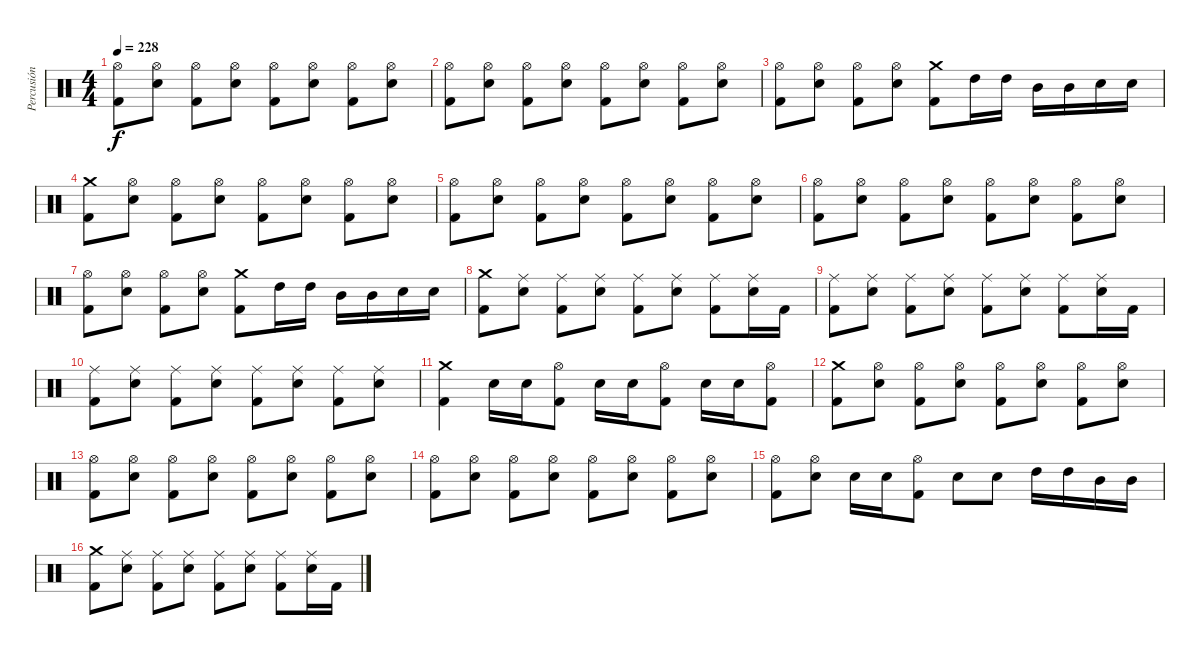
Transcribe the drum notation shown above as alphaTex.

\track ("Percusión" "Percusión") {instrument percussion}
\staff {score}
\articulation defaults
\ts (4 4)
\tempo 228
\clef neutral
\ks c
("Hi-Hat (open)" "Kick (hit) 2").8{dy f} ("Hi-Hat (open)" "Electric Snare (hit)").8 ("Hi-Hat (open)" "Kick (hit) 2").8 ("Hi-Hat (open)" "Electric Snare (hit)").8 ("Hi-Hat (open)" "Kick (hit) 2").8 ("Hi-Hat (open)" "Electric Snare (hit)").8 ("Hi-Hat (open)" "Kick (hit) 2").8 ("Hi-Hat (open)" "Electric Snare (hit)").8 |
("Hi-Hat (open)" "Kick (hit) 2").8 ("Hi-Hat (open)" "Electric Snare (hit)").8 ("Hi-Hat (open)" "Kick (hit) 2").8 ("Hi-Hat (open)" "Electric Snare (hit)").8 ("Hi-Hat (open)" "Kick (hit) 2").8 ("Hi-Hat (open)" "Electric Snare (hit)").8 ("Hi-Hat (open)" "Kick (hit) 2").8 ("Hi-Hat (open)" "Electric Snare (hit)").8 |
("Hi-Hat (open)" "Kick (hit) 2").8 ("Hi-Hat (open)" "Electric Snare (hit)").8 ("Hi-Hat (open)" "Kick (hit) 2").8 ("Hi-Hat (open)" "Electric Snare (hit)").8 ("Crash medium (hit)" "Kick (hit) 2").8 "High Tom (hit)".16 "High Tom (hit)".16 "Mid Tom (hit)".16 "Mid Tom (hit)".16 "Electric Snare (hit)".16 "Electric Snare (hit)".16 |
("Kick (hit) 2" "Crash medium (hit)").8 ("Hi-Hat (open)" "Electric Snare (hit)").8 ("Hi-Hat (open)" "Kick (hit) 2").8 ("Hi-Hat (open)" "Electric Snare (hit)").8 ("Hi-Hat (open)" "Kick (hit) 2").8 ("Hi-Hat (open)" "Electric Snare (hit)").8 ("Hi-Hat (open)" "Kick (hit) 2").8 ("Hi-Hat (open)" "Electric Snare (hit)").8 |
("Hi-Hat (open)" "Kick (hit) 2").8 ("Hi-Hat (open)" "Electric Snare (hit)").8 ("Hi-Hat (open)" "Kick (hit) 2").8 ("Hi-Hat (open)" "Electric Snare (hit)").8 ("Hi-Hat (open)" "Kick (hit) 2").8 ("Hi-Hat (open)" "Electric Snare (hit)").8 ("Hi-Hat (open)" "Kick (hit) 2").8 ("Hi-Hat (open)" "Electric Snare (hit)").8 |
("Hi-Hat (open)" "Kick (hit) 2").8 ("Hi-Hat (open)" "Electric Snare (hit)").8 ("Hi-Hat (open)" "Kick (hit) 2").8 ("Hi-Hat (open)" "Electric Snare (hit)").8 ("Hi-Hat (open)" "Kick (hit) 2").8 ("Hi-Hat (open)" "Electric Snare (hit)").8 ("Hi-Hat (open)" "Kick (hit) 2").8 ("Hi-Hat (open)" "Electric Snare (hit)").8 |
("Hi-Hat (open)" "Kick (hit) 2").8 ("Hi-Hat (open)" "Electric Snare (hit)").8 ("Hi-Hat (open)" "Kick (hit) 2").8 ("Hi-Hat (open)" "Electric Snare (hit)").8 ("Crash medium (hit)" "Kick (hit) 2").8 "High Tom (hit)".16 "High Tom (hit)".16 "Mid Tom (hit)".16 "Mid Tom (hit)".16 "Electric Snare (hit)".16 "Electric Snare (hit)".16 |
("Kick (hit) 2" "Crash medium (hit)").8 ("Ride (middle)" "Electric Snare (hit)").8 ("Ride (middle)" "Kick (hit) 2").8 ("Ride (middle)" "Electric Snare (hit)").8 ("Ride (middle)" "Kick (hit) 2").8 ("Ride (middle)" "Electric Snare (hit)").8 ("Ride (middle)" "Kick (hit) 2").8 ("Ride (middle)" "Electric Snare (hit)").16 "Kick (hit) 2".16 |
("Ride (middle)" "Kick (hit) 2").8 ("Ride (middle)" "Electric Snare (hit)").8 ("Ride (middle)" "Kick (hit) 2").8 ("Ride (middle)" "Electric Snare (hit)").8 ("Ride (middle)" "Kick (hit) 2").8 ("Ride (middle)" "Electric Snare (hit)").8 ("Ride (middle)" "Kick (hit) 2").8 ("Ride (middle)" "Electric Snare (hit)").16 "Kick (hit) 2".16 |
("Ride (middle)" "Kick (hit) 2").8 ("Ride (middle)" "Electric Snare (hit)").8 ("Ride (middle)" "Kick (hit) 2").8 ("Ride (middle)" "Electric Snare (hit)").8 ("Ride (middle)" "Kick (hit) 2").8 ("Ride (middle)" "Electric Snare (hit)").8 ("Ride (middle)" "Kick (hit) 2").8 ("Ride (middle)" "Electric Snare (hit)").8 |
("Crash medium (hit)" "Kick (hit) 2").4 "Electric Snare (hit)".16 "Electric Snare (hit)".16 ("Hi-Hat (open)" "Kick (hit) 2").8 "Electric Snare (hit)".16 "Electric Snare (hit)".16 ("Kick (hit) 2" "Hi-Hat (open)").8 "Electric Snare (hit)".16 "Electric Snare (hit)".16 ("Hi-Hat (open)" "Kick (hit) 2").8 |
("Kick (hit) 2" "Crash medium (hit)").8 ("Hi-Hat (open)" "Electric Snare (hit)").8 ("Hi-Hat (open)" "Kick (hit) 2").8 ("Hi-Hat (open)" "Electric Snare (hit)").8 ("Hi-Hat (open)" "Kick (hit) 2").8 ("Hi-Hat (open)" "Electric Snare (hit)").8 ("Hi-Hat (open)" "Kick (hit) 2").8 ("Hi-Hat (open)" "Electric Snare (hit)").8 |
("Hi-Hat (open)" "Kick (hit) 2").8 ("Hi-Hat (open)" "Electric Snare (hit)").8 ("Hi-Hat (open)" "Kick (hit) 2").8 ("Hi-Hat (open)" "Electric Snare (hit)").8 ("Hi-Hat (open)" "Kick (hit) 2").8 ("Hi-Hat (open)" "Electric Snare (hit)").8 ("Hi-Hat (open)" "Kick (hit) 2").8 ("Hi-Hat (open)" "Electric Snare (hit)").8 |
("Hi-Hat (open)" "Kick (hit) 2").8 ("Hi-Hat (open)" "Electric Snare (hit)").8 ("Hi-Hat (open)" "Kick (hit) 2").8 ("Hi-Hat (open)" "Electric Snare (hit)").8 ("Hi-Hat (open)" "Kick (hit) 2").8 ("Hi-Hat (open)" "Electric Snare (hit)").8 ("Hi-Hat (open)" "Kick (hit) 2").8 ("Hi-Hat (open)" "Electric Snare (hit)").8 |
("Hi-Hat (open)" "Kick (hit) 2").8 ("Hi-Hat (open)" "Electric Snare (hit)").8 "Electric Snare (hit)".16 "Electric Snare (hit)".16 ("Hi-Hat (open)" "Kick (hit) 2").8 "Electric Snare (hit)".8 "Electric Snare (hit)".8 "High Tom (hit)".16 "High Tom (hit)".16 "Mid Tom (hit)".16 "Mid Tom (hit)".16 |
("Kick (hit) 2" "Crash medium (hit)").8 ("Ride (middle)" "Electric Snare (hit)").8 ("Ride (middle)" "Kick (hit) 2").8 ("Ride (middle)" "Electric Snare (hit)").8 ("Ride (middle)" "Kick (hit) 2").8 ("Ride (middle)" "Electric Snare (hit)").8 ("Ride (middle)" "Kick (hit) 2").8 ("Ride (middle)" "Electric Snare (hit)").16 "Kick (hit) 2".16
